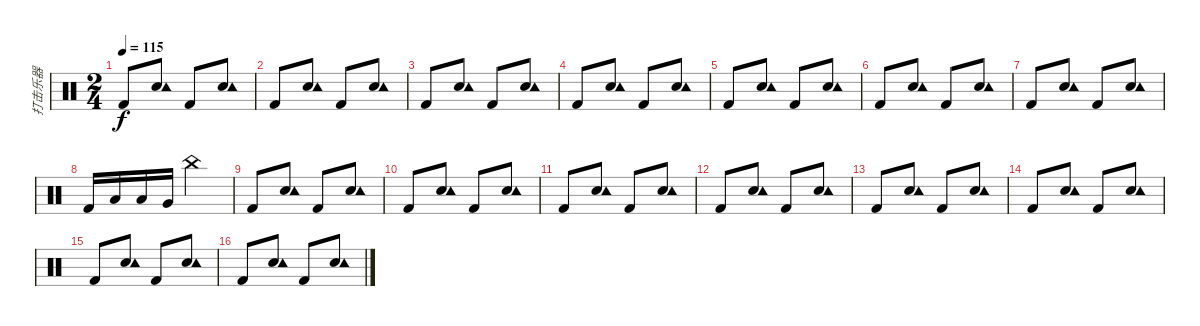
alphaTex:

\track ("打击乐器" "打击乐器") {instrument percussion}
\staff {score}
\articulation defaults
\ts (2 4)
\tempo 115
\clef neutral
\ks c "Kick (hit) 2".8{dy f}
("Snare (hit) 2" "Tambourine (hit)").8 "Kick (hit) 2".8 ("Snare (hit) 2" "Tambourine (hit)").8 |
"Kick (hit) 2".8 ("Snare (hit) 2" "Tambourine (hit)").8 "Kick (hit) 2".8 ("Snare (hit) 2" "Tambourine (hit)").8 |
"Kick (hit) 2".8 ("Snare (hit) 2" "Tambourine (hit)").8 "Kick (hit) 2".8 ("Snare (hit) 2" "Tambourine (hit)").8 |
"Kick (hit) 2".8 ("Snare (hit) 2" "Tambourine (hit)").8 "Kick (hit) 2".8 ("Snare (hit) 2" "Tambourine (hit)").8 |
"Kick (hit) 2".8 ("Snare (hit) 2" "Tambourine (hit)").8 "Kick (hit) 2".8 ("Snare (hit) 2" "Tambourine (hit)").8 |
"Kick (hit) 2".8 ("Snare (hit) 2" "Tambourine (hit)").8 "Kick (hit) 2".8 ("Snare (hit) 2" "Tambourine (hit)").8 |
"Kick (hit) 2".8 ("Snare (hit) 2" "Tambourine (hit)").8 "Kick (hit) 2".8 ("Snare (hit) 2" "Tambourine (hit)").8 |
"Kick (hit) 2".16 "Low Floor Tom (hit)".16 "Low Tom (hit)".16 "Very Low Tom (hit)".16 "China (hit)".4 |
"Kick (hit) 2".8 ("Snare (hit) 2" "Tambourine (hit)").8 "Kick (hit) 2".8 ("Snare (hit) 2" "Tambourine (hit)").8 |
"Kick (hit) 2".8 ("Snare (hit) 2" "Tambourine (hit)").8 "Kick (hit) 2".8 ("Snare (hit) 2" "Tambourine (hit)").8 |
"Kick (hit) 2".8 ("Snare (hit) 2" "Tambourine (hit)").8 "Kick (hit) 2".8 ("Snare (hit) 2" "Tambourine (hit)").8 |
"Kick (hit) 2".8 ("Snare (hit) 2" "Tambourine (hit)").8 "Kick (hit) 2".8 ("Snare (hit) 2" "Tambourine (hit)").8 |
"Kick (hit) 2".8 ("Snare (hit) 2" "Tambourine (hit)").8 "Kick (hit) 2".8 ("Snare (hit) 2" "Tambourine (hit)").8 |
"Kick (hit) 2".8 ("Snare (hit) 2" "Tambourine (hit)").8 "Kick (hit) 2".8 ("Snare (hit) 2" "Tambourine (hit)").8 |
"Kick (hit) 2".8 ("Snare (hit) 2" "Tambourine (hit)").8 "Kick (hit) 2".8 ("Snare (hit) 2" "Tambourine (hit)").8 |
"Kick (hit) 2".8 ("Snare (hit) 2" "Tambourine (hit)").8 "Kick (hit) 2".8 ("Snare (hit) 2" "Tambourine (hit)").8
